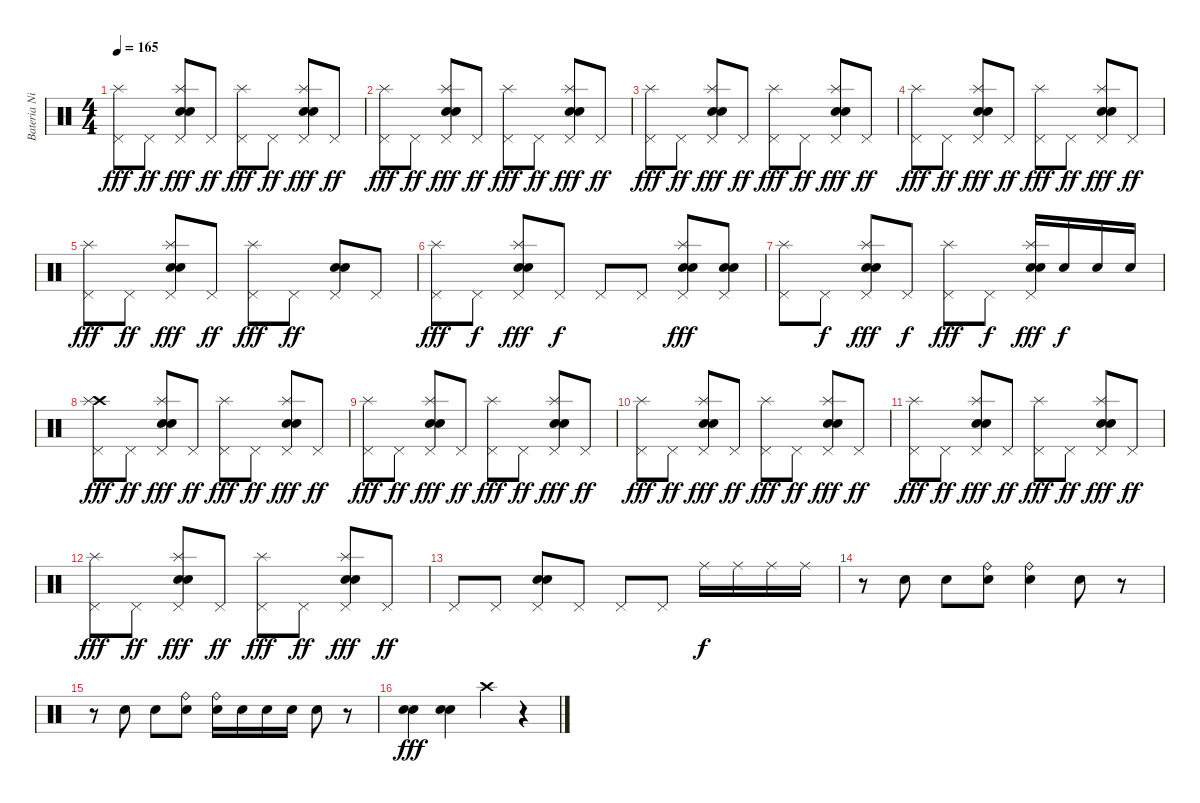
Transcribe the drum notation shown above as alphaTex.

\track ("Bateria Nicolas Cabrera" "Bateria Ni") {instrument percussion}
\staff {score}
\articulation defaults
\ts (4 4)
\tempo 165
\clef neutral
\ks c
("Pedal Hi-Hat (hit)" "Splash (hit)").8{dy fff} "Pedal Hi-Hat (hit)".8{dy ff} ("Electric Snare (hit)" "Electric Snare (hit)" "Pedal Hi-Hat (hit)" "Splash (hit)").8{dy fff} "Pedal Hi-Hat (hit)".8{dy ff} ("Pedal Hi-Hat (hit)" "Splash (hit)").8{dy fff} "Pedal Hi-Hat (hit)".8{dy ff} ("Electric Snare (hit)" "Electric Snare (hit)" "Pedal Hi-Hat (hit)" "Splash (hit)").8{dy fff} "Pedal Hi-Hat (hit)".8{dy ff} |
("Pedal Hi-Hat (hit)" "Splash (hit)").8{dy fff} "Pedal Hi-Hat (hit)".8{dy ff} ("Electric Snare (hit)" "Electric Snare (hit)" "Pedal Hi-Hat (hit)" "Splash (hit)").8{dy fff} "Pedal Hi-Hat (hit)".8{dy ff} ("Pedal Hi-Hat (hit)" "Splash (hit)").8{dy fff} "Pedal Hi-Hat (hit)".8{dy ff} ("Electric Snare (hit)" "Electric Snare (hit)" "Pedal Hi-Hat (hit)" "Splash (hit)").8{dy fff} "Pedal Hi-Hat (hit)".8{dy ff} |
("Pedal Hi-Hat (hit)" "Splash (hit)").8{dy fff} "Pedal Hi-Hat (hit)".8{dy ff} ("Electric Snare (hit)" "Electric Snare (hit)" "Pedal Hi-Hat (hit)" "Splash (hit)").8{dy fff} "Pedal Hi-Hat (hit)".8{dy ff} ("Pedal Hi-Hat (hit)" "Splash (hit)").8{dy fff} "Pedal Hi-Hat (hit)".8{dy ff} ("Electric Snare (hit)" "Electric Snare (hit)" "Pedal Hi-Hat (hit)" "Splash (hit)").8{dy fff} "Pedal Hi-Hat (hit)".8{dy ff} |
("Pedal Hi-Hat (hit)" "Splash (hit)").8{dy fff} "Pedal Hi-Hat (hit)".8{dy ff} ("Electric Snare (hit)" "Electric Snare (hit)" "Pedal Hi-Hat (hit)" "Splash (hit)").8{dy fff} "Pedal Hi-Hat (hit)".8{dy ff} ("Pedal Hi-Hat (hit)" "Splash (hit)").8{dy fff} "Pedal Hi-Hat (hit)".8{dy ff} ("Electric Snare (hit)" "Electric Snare (hit)" "Pedal Hi-Hat (hit)" "Splash (hit)").8{dy fff} "Pedal Hi-Hat (hit)".8{dy ff} |
("Pedal Hi-Hat (hit)" "Splash (hit)").8{dy fff} "Pedal Hi-Hat (hit)".8{dy ff} ("Electric Snare (hit)" "Electric Snare (hit)" "Pedal Hi-Hat (hit)" "Splash (hit)").8{dy fff} "Pedal Hi-Hat (hit)".8{dy ff} ("Pedal Hi-Hat (hit)" "Splash (hit)").8{dy fff} "Pedal Hi-Hat (hit)".8{dy ff} ("Electric Snare (hit)" "Electric Snare (hit)" "Pedal Hi-Hat (hit)").8 "Pedal Hi-Hat (hit)".8 |
("Pedal Hi-Hat (hit)" "Splash (hit)").8{dy fff} "Pedal Hi-Hat (hit)".8{dy f} ("Electric Snare (hit)" "Electric Snare (hit)" "Pedal Hi-Hat (hit)" "Splash (hit)").8{dy fff} "Pedal Hi-Hat (hit)".8{dy f} "Pedal Hi-Hat (hit)".8 "Pedal Hi-Hat (hit)".8 ("Electric Snare (hit)" "Electric Snare (hit)" "Pedal Hi-Hat (hit)" "Splash (hit)").8{dy fff} ("Electric Snare (hit)" "Electric Snare (hit)" "Pedal Hi-Hat (hit)").8 |
("Pedal Hi-Hat (hit)" "Splash (hit)").8 "Pedal Hi-Hat (hit)".8{dy f} ("Electric Snare (hit)" "Electric Snare (hit)" "Pedal Hi-Hat (hit)" "Splash (hit)").8{dy fff} "Pedal Hi-Hat (hit)".8{dy f} ("Pedal Hi-Hat (hit)" "Splash (hit)").8{dy fff} "Pedal Hi-Hat (hit)".8{dy f} ("Electric Snare (hit)" "Electric Snare (hit)" "Pedal Hi-Hat (hit)" "Splash (hit)").16{dy fff} "Electric Snare (hit)".16{dy f} "Electric Snare (hit)".16 "Electric Snare (hit)".16 |
("Crash high (hit)" "Pedal Hi-Hat (hit)" "Splash (hit)").8{dy fff} "Pedal Hi-Hat (hit)".8{dy ff} ("Electric Snare (hit)" "Electric Snare (hit)" "Pedal Hi-Hat (hit)" "Splash (hit)").8{dy fff} "Pedal Hi-Hat (hit)".8{dy ff} ("Pedal Hi-Hat (hit)" "Splash (hit)").8{dy fff} "Pedal Hi-Hat (hit)".8{dy ff} ("Electric Snare (hit)" "Electric Snare (hit)" "Pedal Hi-Hat (hit)" "Splash (hit)").8{dy fff} "Pedal Hi-Hat (hit)".8{dy ff} |
("Pedal Hi-Hat (hit)" "Splash (hit)").8{dy fff} "Pedal Hi-Hat (hit)".8{dy ff} ("Electric Snare (hit)" "Electric Snare (hit)" "Pedal Hi-Hat (hit)" "Splash (hit)").8{dy fff} "Pedal Hi-Hat (hit)".8{dy ff} ("Pedal Hi-Hat (hit)" "Splash (hit)").8{dy fff} "Pedal Hi-Hat (hit)".8{dy ff} ("Electric Snare (hit)" "Electric Snare (hit)" "Pedal Hi-Hat (hit)" "Splash (hit)").8{dy fff} "Pedal Hi-Hat (hit)".8{dy ff} |
("Pedal Hi-Hat (hit)" "Splash (hit)").8{dy fff} "Pedal Hi-Hat (hit)".8{dy ff} ("Electric Snare (hit)" "Electric Snare (hit)" "Pedal Hi-Hat (hit)" "Splash (hit)").8{dy fff} "Pedal Hi-Hat (hit)".8{dy ff} ("Pedal Hi-Hat (hit)" "Splash (hit)").8{dy fff} "Pedal Hi-Hat (hit)".8{dy ff} ("Electric Snare (hit)" "Electric Snare (hit)" "Pedal Hi-Hat (hit)" "Splash (hit)").8{dy fff} "Pedal Hi-Hat (hit)".8{dy ff} |
("Pedal Hi-Hat (hit)" "Splash (hit)").8{dy fff} "Pedal Hi-Hat (hit)".8{dy ff} ("Electric Snare (hit)" "Electric Snare (hit)" "Pedal Hi-Hat (hit)" "Splash (hit)").8{dy fff} "Pedal Hi-Hat (hit)".8{dy ff} ("Pedal Hi-Hat (hit)" "Splash (hit)").8{dy fff} "Pedal Hi-Hat (hit)".8{dy ff} ("Electric Snare (hit)" "Electric Snare (hit)" "Pedal Hi-Hat (hit)" "Splash (hit)").8{dy fff} "Pedal Hi-Hat (hit)".8{dy ff} |
("Pedal Hi-Hat (hit)" "Splash (hit)").8{dy fff} "Pedal Hi-Hat (hit)".8{dy ff} ("Electric Snare (hit)" "Electric Snare (hit)" "Pedal Hi-Hat (hit)" "Splash (hit)").8{dy fff} "Pedal Hi-Hat (hit)".8{dy ff} ("Pedal Hi-Hat (hit)" "Splash (hit)").8{dy fff} "Pedal Hi-Hat (hit)".8{dy ff} ("Electric Snare (hit)" "Electric Snare (hit)" "Pedal Hi-Hat (hit)" "Splash (hit)").8{dy fff} "Pedal Hi-Hat (hit)".8{dy ff} |
"Pedal Hi-Hat (hit)".8 "Pedal Hi-Hat (hit)".8 ("Electric Snare (hit)" "Electric Snare (hit)" "Pedal Hi-Hat (hit)").8 "Pedal Hi-Hat (hit)".8 "Pedal Hi-Hat (hit)".8 "Pedal Hi-Hat (hit)".8 "Ride (middle)".16{dy f} "Ride (middle)".16 "Ride (middle)".16 "Ride (middle)".16 |
r.8 "Electric Snare (hit)".8 "Electric Snare (hit)".8 ("Ride (bell)" "Electric Snare (hit)").8 ("Ride (bell)" "Electric Snare (hit)").4 "Electric Snare (hit)".8 r.8 |
r.8 "Electric Snare (hit)".8 "Electric Snare (hit)".8 ("Ride (bell)" "Electric Snare (hit)").8 ("Ride (bell)" "Electric Snare (hit)").16 "Electric Snare (hit)".16 "Electric Snare (hit)".16 "Electric Snare (hit)".16 "Electric Snare (hit)".8 r.8 |
("Electric Snare (hit)" "Electric Snare (hit)").4{dy fff} ("Electric Snare (hit)" "Electric Snare (hit)").4 "Crash high (hit)".4 r.4
